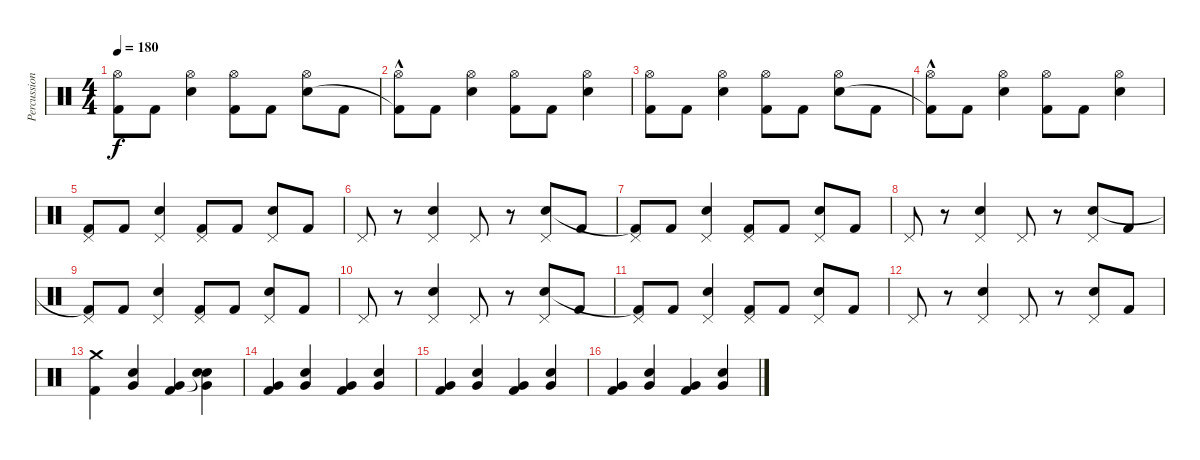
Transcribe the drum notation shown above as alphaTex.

\track ("Percussion" "Percussion") {instrument percussion}
\staff {score}
\articulation defaults
\ts (4 4)
\tempo 180
\clef neutral
\ks c
("Hi-Hat (open)" "Kick (hit) 2").8{dy f} "Kick (hit) 2".8 ("Hi-Hat (open)" "Electric Snare (hit)").4 ("Hi-Hat (open)" "Kick (hit) 2").8 "Kick (hit) 2".8 ("Hi-Hat (open)" "Electric Snare (hit)").8 "Kick (hit) 2".8 |
("Hi-Hat (open)" "Kick (hit) 2"{hac t}).8 "Kick (hit) 2".8 ("Hi-Hat (open)" "Electric Snare (hit)").4 ("Hi-Hat (open)" "Kick (hit) 2").8 "Kick (hit) 2".8 ("Hi-Hat (open)" "Electric Snare (hit)").4 |
("Hi-Hat (open)" "Kick (hit) 2").8 "Kick (hit) 2".8 ("Hi-Hat (open)" "Electric Snare (hit)").4 ("Hi-Hat (open)" "Kick (hit) 2").8 "Kick (hit) 2".8 ("Hi-Hat (open)" "Electric Snare (hit)").8 "Kick (hit) 2".8 |
("Hi-Hat (open)" "Kick (hit) 2"{hac t}).8 "Kick (hit) 2".8 ("Hi-Hat (open)" "Electric Snare (hit)").4 ("Hi-Hat (open)" "Kick (hit) 2").8 "Kick (hit) 2".8 ("Hi-Hat (open)" "Electric Snare (hit)").4 |
("Pedal Hi-Hat (hit)" "Kick (hit) 2").8 "Kick (hit) 2".8 ("Pedal Hi-Hat (hit)" "Electric Snare (hit)").4 ("Pedal Hi-Hat (hit)" "Kick (hit) 2").8 "Kick (hit) 2".8 ("Pedal Hi-Hat (hit)" "Electric Snare (hit)").8 "Kick (hit) 2".8 |
"Pedal Hi-Hat (hit)".8 r.8 ("Pedal Hi-Hat (hit)" "Electric Snare (hit)").4 "Pedal Hi-Hat (hit)".8 r.8 ("Pedal Hi-Hat (hit)" "Electric Snare (hit)").8 "Kick (hit) 2".8 |
("Pedal Hi-Hat (hit)" "Kick (hit) 2"{t}).8 "Kick (hit) 2".8 ("Pedal Hi-Hat (hit)" "Electric Snare (hit)").4 ("Pedal Hi-Hat (hit)" "Kick (hit) 2").8 "Kick (hit) 2".8 ("Pedal Hi-Hat (hit)" "Electric Snare (hit)").8 "Kick (hit) 2".8 |
"Pedal Hi-Hat (hit)".8 r.8 ("Pedal Hi-Hat (hit)" "Electric Snare (hit)").4 "Pedal Hi-Hat (hit)".8 r.8 ("Pedal Hi-Hat (hit)" "Electric Snare (hit)").8 "Kick (hit) 2".8 |
("Pedal Hi-Hat (hit)" "Kick (hit) 2"{t}).8 "Kick (hit) 2".8 ("Pedal Hi-Hat (hit)" "Electric Snare (hit)").4 ("Pedal Hi-Hat (hit)" "Kick (hit) 2").8 "Kick (hit) 2".8 ("Pedal Hi-Hat (hit)" "Electric Snare (hit)").8 "Kick (hit) 2".8 |
"Pedal Hi-Hat (hit)".8 r.8 ("Pedal Hi-Hat (hit)" "Electric Snare (hit)").4 "Pedal Hi-Hat (hit)".8 r.8 ("Pedal Hi-Hat (hit)" "Electric Snare (hit)").8 "Kick (hit) 2".8 |
("Pedal Hi-Hat (hit)" "Kick (hit) 2"{t}).8 "Kick (hit) 2".8 ("Pedal Hi-Hat (hit)" "Electric Snare (hit)").4 ("Pedal Hi-Hat (hit)" "Kick (hit) 2").8 "Kick (hit) 2".8 ("Pedal Hi-Hat (hit)" "Electric Snare (hit)").8 "Kick (hit) 2".8 |
"Pedal Hi-Hat (hit)".8 r.8 ("Pedal Hi-Hat (hit)" "Electric Snare (hit)").4 "Pedal Hi-Hat (hit)".8 r.8 ("Pedal Hi-Hat (hit)" "Electric Snare (hit)").8 "Kick (hit) 2".8 |
("Crash medium (hit)" "Kick (hit) 2").4 ("Very Low Tom (hit)" "Electric Snare (hit)").4 ("Very Low Tom (hit)" "Kick (hit) 2").4 ("Snare (hit)"{t} "Very Low Tom (hit)" "Electric Snare (hit)").4 |
("Very Low Tom (hit)" "Kick (hit) 2").4 ("Very Low Tom (hit)" "Electric Snare (hit)").4 ("Very Low Tom (hit)" "Kick (hit) 2").4 ("Very Low Tom (hit)" "Electric Snare (hit)").4 |
("Very Low Tom (hit)" "Kick (hit) 2").4 ("Very Low Tom (hit)" "Electric Snare (hit)").4 ("Very Low Tom (hit)" "Kick (hit) 2").4 ("Very Low Tom (hit)" "Electric Snare (hit)").4 |
("Very Low Tom (hit)" "Kick (hit) 2").4 ("Very Low Tom (hit)" "Electric Snare (hit)").4 ("Very Low Tom (hit)" "Kick (hit) 2").4 ("Very Low Tom (hit)" "Electric Snare (hit)").4
